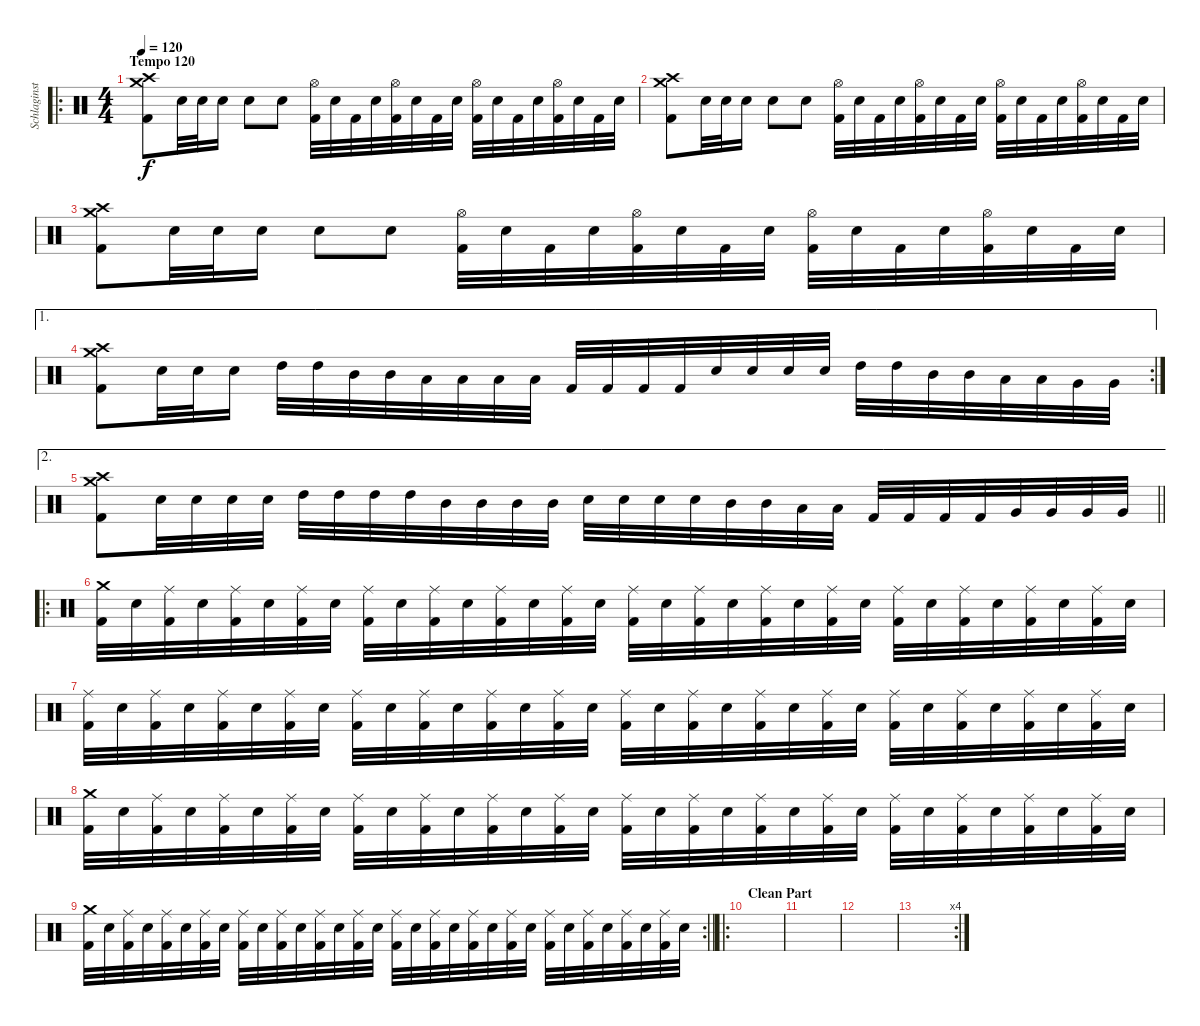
\track ("Schlaginstrumente - Auswahl" "Schlaginst") {instrument percussion}
\staff {score}
\articulation defaults
\ro
\ts (4 4)
\section ("" "Tempo 120")
\tempo 120
\clef neutral
\ks c
("Crash high (hit)" "Crash medium (hit)" "Kick (hit) 2").8{dy f} "Electric Snare (hit)".32 "Electric Snare (hit)".32 "Electric Snare (hit)".16 "Electric Snare (hit)".8 "Electric Snare (hit)".8 ("Hi-Hat (open)" "Kick (hit) 2").32 "Electric Snare (hit)".32 "Kick (hit) 2".32 "Electric Snare (hit)".32 ("Hi-Hat (open)" "Kick (hit) 2").32 "Electric Snare (hit)".32 "Kick (hit) 2".32 "Electric Snare (hit)".32 ("Hi-Hat (open)" "Kick (hit) 2").32 "Electric Snare (hit)".32 "Kick (hit) 2".32 "Electric Snare (hit)".32 ("Hi-Hat (open)" "Kick (hit) 2").32 "Electric Snare (hit)".32 "Kick (hit) 2".32 "Electric Snare (hit)".32 |
("Crash high (hit)" "Crash medium (hit)" "Kick (hit) 2").8 "Electric Snare (hit)".32 "Electric Snare (hit)".32 "Electric Snare (hit)".16 "Electric Snare (hit)".8 "Electric Snare (hit)".8 ("Hi-Hat (open)" "Kick (hit) 2").32 "Electric Snare (hit)".32 "Kick (hit) 2".32 "Electric Snare (hit)".32 ("Hi-Hat (open)" "Kick (hit) 2").32 "Electric Snare (hit)".32 "Kick (hit) 2".32 "Electric Snare (hit)".32 ("Hi-Hat (open)" "Kick (hit) 2").32 "Electric Snare (hit)".32 "Kick (hit) 2".32 "Electric Snare (hit)".32 ("Hi-Hat (open)" "Kick (hit) 2").32 "Electric Snare (hit)".32 "Kick (hit) 2".32 "Electric Snare (hit)".32 |
("Crash high (hit)" "Crash medium (hit)" "Kick (hit) 2").8 "Electric Snare (hit)".32 "Electric Snare (hit)".32 "Electric Snare (hit)".16 "Electric Snare (hit)".8 "Electric Snare (hit)".8 ("Hi-Hat (open)" "Kick (hit) 2").32 "Electric Snare (hit)".32 "Kick (hit) 2".32 "Electric Snare (hit)".32 ("Hi-Hat (open)" "Kick (hit) 2").32 "Electric Snare (hit)".32 "Kick (hit) 2".32 "Electric Snare (hit)".32 ("Hi-Hat (open)" "Kick (hit) 2").32 "Electric Snare (hit)".32 "Kick (hit) 2".32 "Electric Snare (hit)".32 ("Hi-Hat (open)" "Kick (hit) 2").32 "Electric Snare (hit)".32 "Kick (hit) 2".32 "Electric Snare (hit)".32 |
\ae 1
\rc 2
("Crash high (hit)" "Crash medium (hit)" "Kick (hit) 2").8 "Electric Snare (hit)".32 "Electric Snare (hit)".32 "Electric Snare (hit)".16 "High Tom (hit)".32 "High Tom (hit)".32 "Mid Tom (hit)".32 "Mid Tom (hit)".32 "Low Tom (hit)".32 "Low Tom (hit)".32 "Low Tom (hit)".32 "Low Tom (hit)".32 "Kick (hit) 2".32 "Kick (hit) 2".32 "Kick (hit) 2".32 "Kick (hit) 2".32 "Electric Snare (hit)".32 "Electric Snare (hit)".32 "Electric Snare (hit)".32 "Electric Snare (hit)".32 "High Tom (hit)".32 "High Tom (hit)".32 "Mid Tom (hit)".32 "Mid Tom (hit)".32 "Low Tom (hit)".32 "Low Tom (hit)".32 "Very Low Tom (hit)".32 "Very Low Tom (hit)".32 |
\ae 2
\barLineRight lightlight
("Crash medium (hit)" "Crash high (hit)" "Kick (hit) 2").8 "Electric Snare (hit)".32 "Electric Snare (hit)".32 "Electric Snare (hit)".32 "Electric Snare (hit)".32 "High Tom (hit)".32 "High Tom (hit)".32 "High Tom (hit)".32 "High Tom (hit)".32 "Mid Tom (hit)".32 "Mid Tom (hit)".32 "Mid Tom (hit)".32 "Mid Tom (hit)".32 "Electric Snare (hit)".32 "Electric Snare (hit)".32 "Electric Snare (hit)".32 "Electric Snare (hit)".32 "Mid Tom (hit)".32 "Mid Tom (hit)".32 "Low Tom (hit)".32 "Low Tom (hit)".32 "Kick (hit) 2".32 "Kick (hit) 2".32 "Kick (hit) 2".32 "Kick (hit) 2".32 "Very Low Tom (hit)".32 "Very Low Tom (hit)".32 "Very Low Tom (hit)".32 "Very Low Tom (hit)".32 |
\ro
("Crash medium (hit)" "Kick (hit) 2").32 "Electric Snare (hit)".32 ("Ride (middle)" "Kick (hit) 2").32 "Electric Snare (hit)".32 ("Ride (middle)" "Kick (hit) 2").32 "Electric Snare (hit)".32 ("Ride (middle)" "Kick (hit) 2").32 "Electric Snare (hit)".32 ("Ride (middle)" "Kick (hit) 2").32 "Electric Snare (hit)".32 ("Ride (middle)" "Kick (hit) 2").32 "Electric Snare (hit)".32 ("Ride (middle)" "Kick (hit) 2").32 "Electric Snare (hit)".32 ("Ride (middle)" "Kick (hit) 2").32 "Electric Snare (hit)".32 ("Ride (middle)" "Kick (hit) 2").32 "Electric Snare (hit)".32 ("Ride (middle)" "Kick (hit) 2").32 "Electric Snare (hit)".32 ("Ride (middle)" "Kick (hit) 2").32 "Electric Snare (hit)".32 ("Ride (middle)" "Kick (hit) 2").32 "Electric Snare (hit)".32 ("Ride (middle)" "Kick (hit) 2").32 "Electric Snare (hit)".32 ("Ride (middle)" "Kick (hit) 2").32 "Electric Snare (hit)".32 ("Ride (middle)" "Kick (hit) 2").32 "Electric Snare (hit)".32 ("Ride (middle)" "Kick (hit) 2").32 "Electric Snare (hit)".32 |
("Ride (middle)" "Kick (hit) 2").32 "Electric Snare (hit)".32 ("Ride (middle)" "Kick (hit) 2").32 "Electric Snare (hit)".32 ("Ride (middle)" "Kick (hit) 2").32 "Electric Snare (hit)".32 ("Ride (middle)" "Kick (hit) 2").32 "Electric Snare (hit)".32 ("Ride (middle)" "Kick (hit) 2").32 "Electric Snare (hit)".32 ("Ride (middle)" "Kick (hit) 2").32 "Electric Snare (hit)".32 ("Ride (middle)" "Kick (hit) 2").32 "Electric Snare (hit)".32 ("Ride (middle)" "Kick (hit) 2").32 "Electric Snare (hit)".32 ("Ride (middle)" "Kick (hit) 2").32 "Electric Snare (hit)".32 ("Ride (middle)" "Kick (hit) 2").32 "Electric Snare (hit)".32 ("Ride (middle)" "Kick (hit) 2").32 "Electric Snare (hit)".32 ("Ride (middle)" "Kick (hit) 2").32 "Electric Snare (hit)".32 ("Ride (middle)" "Kick (hit) 2").32 "Electric Snare (hit)".32 ("Ride (middle)" "Kick (hit) 2").32 "Electric Snare (hit)".32 ("Ride (middle)" "Kick (hit) 2").32 "Electric Snare (hit)".32 ("Ride (middle)" "Kick (hit) 2").32 "Electric Snare (hit)".32 |
("Crash medium (hit)" "Kick (hit) 2").32 "Electric Snare (hit)".32 ("Ride (middle)" "Kick (hit) 2").32 "Electric Snare (hit)".32 ("Ride (middle)" "Kick (hit) 2").32 "Electric Snare (hit)".32 ("Ride (middle)" "Kick (hit) 2").32 "Electric Snare (hit)".32 ("Ride (middle)" "Kick (hit) 2").32 "Electric Snare (hit)".32 ("Ride (middle)" "Kick (hit) 2").32 "Electric Snare (hit)".32 ("Ride (middle)" "Kick (hit) 2").32 "Electric Snare (hit)".32 ("Ride (middle)" "Kick (hit) 2").32 "Electric Snare (hit)".32 ("Ride (middle)" "Kick (hit) 2").32 "Electric Snare (hit)".32 ("Ride (middle)" "Kick (hit) 2").32 "Electric Snare (hit)".32 ("Ride (middle)" "Kick (hit) 2").32 "Electric Snare (hit)".32 ("Ride (middle)" "Kick (hit) 2").32 "Electric Snare (hit)".32 ("Ride (middle)" "Kick (hit) 2").32 "Electric Snare (hit)".32 ("Ride (middle)" "Kick (hit) 2").32 "Electric Snare (hit)".32 ("Ride (middle)" "Kick (hit) 2").32 "Electric Snare (hit)".32 ("Ride (middle)" "Kick (hit) 2").32 "Electric Snare (hit)".32 |
\rc 2
\barLineRight lightlight
("Crash medium (hit)" "Kick (hit) 2").32 "Electric Snare (hit)".32 ("Ride (middle)" "Kick (hit) 2").32 "Electric Snare (hit)".32 ("Ride (middle)" "Kick (hit) 2").32 "Electric Snare (hit)".32 ("Ride (middle)" "Kick (hit) 2").32 "Electric Snare (hit)".32 ("Ride (middle)" "Kick (hit) 2").32 "Electric Snare (hit)".32 ("Ride (middle)" "Kick (hit) 2").32 "Electric Snare (hit)".32 ("Ride (middle)" "Kick (hit) 2").32 "Electric Snare (hit)".32 ("Ride (middle)" "Kick (hit) 2").32 "Electric Snare (hit)".32 ("Ride (middle)" "Kick (hit) 2").32 "Electric Snare (hit)".32 ("Ride (middle)" "Kick (hit) 2").32 "Electric Snare (hit)".32 ("Ride (middle)" "Kick (hit) 2").32 "Electric Snare (hit)".32 ("Ride (middle)" "Kick (hit) 2").32 "Electric Snare (hit)".32 ("Ride (middle)" "Kick (hit) 2").32 "Electric Snare (hit)".32 ("Ride (middle)" "Kick (hit) 2").32 "Electric Snare (hit)".32 ("Ride (middle)" "Kick (hit) 2").32 "Electric Snare (hit)".32 ("Ride (middle)" "Kick (hit) 2").32 "Electric Snare (hit)".32 |
\ro
\section ("" "Clean Part")
|
|
|
\rc 4
